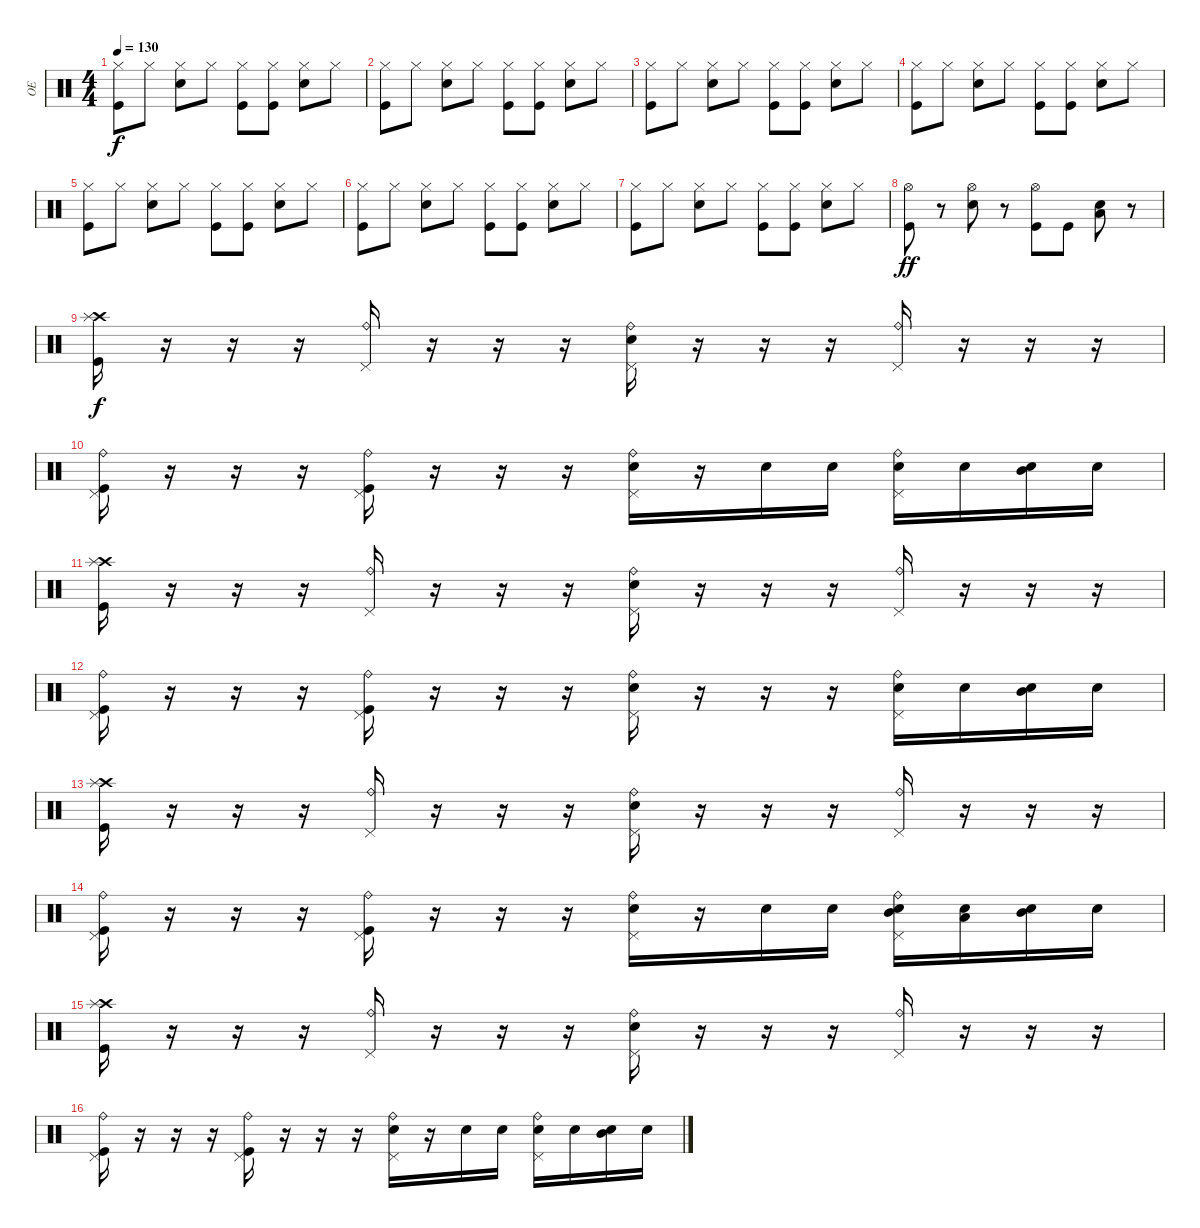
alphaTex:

\track ("OE" "OE") {instrument percussion}
\staff {score}
\articulation defaults
\ts (4 4)
\tempo 130
\clef neutral
\ks c
("Hi-Hat (closed)" "Kick (hit)").8{dy f} "Hi-Hat (closed)".8 ("Hi-Hat (closed)" "Snare (hit) 2").8 "Hi-Hat (closed)".8 ("Hi-Hat (closed)" "Kick (hit)").8 ("Hi-Hat (closed)" "Kick (hit)").8 ("Hi-Hat (closed)" "Snare (hit) 2").8 "Hi-Hat (closed)".8 |
("Hi-Hat (closed)" "Kick (hit)").8 "Hi-Hat (closed)".8 ("Hi-Hat (closed)" "Snare (hit) 2").8 "Hi-Hat (closed)".8 ("Hi-Hat (closed)" "Kick (hit)").8 ("Hi-Hat (closed)" "Kick (hit)").8 ("Hi-Hat (closed)" "Snare (hit) 2").8 "Hi-Hat (closed)".8 |
("Hi-Hat (closed)" "Kick (hit)").8 "Hi-Hat (closed)".8 ("Hi-Hat (closed)" "Snare (hit) 2").8 "Hi-Hat (closed)".8 ("Hi-Hat (closed)" "Kick (hit)").8 ("Hi-Hat (closed)" "Kick (hit)").8 ("Hi-Hat (closed)" "Snare (hit) 2").8 "Hi-Hat (closed)".8 |
("Hi-Hat (closed)" "Kick (hit)").8 "Hi-Hat (closed)".8 ("Hi-Hat (closed)" "Snare (hit) 2").8 "Hi-Hat (closed)".8 ("Hi-Hat (closed)" "Kick (hit)").8 ("Hi-Hat (closed)" "Kick (hit)").8 ("Hi-Hat (closed)" "Snare (hit) 2").8 "Hi-Hat (closed)".8 |
("Hi-Hat (closed)" "Kick (hit)").8 "Hi-Hat (closed)".8 ("Hi-Hat (closed)" "Snare (hit) 2").8 "Hi-Hat (closed)".8 ("Hi-Hat (closed)" "Kick (hit)").8 ("Hi-Hat (closed)" "Kick (hit)").8 ("Hi-Hat (closed)" "Snare (hit) 2").8 "Hi-Hat (closed)".8 |
("Hi-Hat (closed)" "Kick (hit)").8 "Hi-Hat (closed)".8 ("Hi-Hat (closed)" "Snare (hit) 2").8 "Hi-Hat (closed)".8 ("Hi-Hat (closed)" "Kick (hit)").8 ("Hi-Hat (closed)" "Kick (hit)").8 ("Hi-Hat (closed)" "Snare (hit) 2").8 "Hi-Hat (closed)".8 |
("Hi-Hat (closed)" "Kick (hit)").8 "Hi-Hat (closed)".8 ("Hi-Hat (closed)" "Snare (hit) 2").8 "Hi-Hat (closed)".8 ("Hi-Hat (closed)" "Kick (hit)").8 ("Hi-Hat (closed)" "Kick (hit)").8 ("Hi-Hat (closed)" "Snare (hit) 2").8 "Hi-Hat (closed)".8 |
("Kick (hit)" "Hi-Hat (open)").8{dy ff} r.8 ("Snare (hit) 2" "Hi-Hat (open)").8 r.8 ("Kick (hit)" "Hi-Hat (open)").8 "Kick (hit)".8 ("Snare (hit) 2" "Low Tom (hit)").8 r.8 |
("Crash high (hit)" "Kick (hit)" "Splash (hit)").16{dy f} r.16 r.16 r.16 ("Pedal Hi-Hat (hit)" "Ride (bell)").16 r.16 r.16 r.16 ("Pedal Hi-Hat (hit)" "Ride (bell)" "Snare (hit) 2").16 r.16 r.16 r.16 ("Pedal Hi-Hat (hit)" "Ride (bell)").16 r.16 r.16 r.16 |
("Pedal Hi-Hat (hit)" "Ride (bell)" "Kick (hit)").16 r.16 r.16 r.16 ("Pedal Hi-Hat (hit)" "Kick (hit)" "Ride (bell)").16 r.16 r.16 r.16 ("Pedal Hi-Hat (hit)" "Snare (hit) 2" "Ride (bell)").16 r.16 "Snare (hit) 2".16 "Snare (hit) 2".16 ("Pedal Hi-Hat (hit)" "Ride (bell)" "Snare (hit) 2").16 "Snare (hit) 2".16 ("Snare (hit) 2" "Mid Tom (hit)").16 "Snare (hit) 2".16 |
("Crash high (hit)" "Kick (hit)" "Splash (hit)").16 r.16 r.16 r.16 ("Pedal Hi-Hat (hit)" "Ride (bell)").16 r.16 r.16 r.16 ("Pedal Hi-Hat (hit)" "Ride (bell)" "Snare (hit) 2").16 r.16 r.16 r.16 ("Pedal Hi-Hat (hit)" "Ride (bell)").16 r.16 r.16 r.16 |
("Pedal Hi-Hat (hit)" "Ride (bell)" "Kick (hit)").16 r.16 r.16 r.16 ("Pedal Hi-Hat (hit)" "Kick (hit)" "Ride (bell)").16 r.16 r.16 r.16 ("Pedal Hi-Hat (hit)" "Snare (hit) 2" "Ride (bell)").16 r.16 r.16 r.16 ("Pedal Hi-Hat (hit)" "Ride (bell)" "Snare (hit) 2").16 "Snare (hit) 2".16 ("Snare (hit) 2" "Mid Tom (hit)").16 "Snare (hit) 2".16 |
("Crash high (hit)" "Kick (hit)" "Splash (hit)").16 r.16 r.16 r.16 ("Pedal Hi-Hat (hit)" "Ride (bell)").16 r.16 r.16 r.16 ("Pedal Hi-Hat (hit)" "Ride (bell)" "Snare (hit) 2").16 r.16 r.16 r.16 ("Pedal Hi-Hat (hit)" "Ride (bell)").16 r.16 r.16 r.16 |
("Pedal Hi-Hat (hit)" "Ride (bell)" "Kick (hit)").16 r.16 r.16 r.16 ("Pedal Hi-Hat (hit)" "Kick (hit)" "Ride (bell)").16 r.16 r.16 r.16 ("Pedal Hi-Hat (hit)" "Snare (hit) 2" "Ride (bell)").16 r.16 "Snare (hit) 2".16 "Snare (hit) 2".16 ("Pedal Hi-Hat (hit)" "Ride (bell)" "Snare (hit) 2" "Mid Tom (hit)").16 ("Snare (hit) 2" "Low Tom (hit)").16 ("Snare (hit) 2" "Mid Tom (hit)").16 "Snare (hit) 2".16 |
("Crash high (hit)" "Kick (hit)" "Splash (hit)").16 r.16 r.16 r.16 ("Pedal Hi-Hat (hit)" "Ride (bell)").16 r.16 r.16 r.16 ("Pedal Hi-Hat (hit)" "Ride (bell)" "Snare (hit) 2").16 r.16 r.16 r.16 ("Pedal Hi-Hat (hit)" "Ride (bell)").16 r.16 r.16 r.16 |
("Pedal Hi-Hat (hit)" "Ride (bell)" "Kick (hit)").16 r.16 r.16 r.16 ("Pedal Hi-Hat (hit)" "Kick (hit)" "Ride (bell)").16 r.16 r.16 r.16 ("Pedal Hi-Hat (hit)" "Snare (hit) 2" "Ride (bell)").16 r.16 "Snare (hit) 2".16 "Snare (hit) 2".16 ("Pedal Hi-Hat (hit)" "Ride (bell)" "Snare (hit) 2").16 "Snare (hit) 2".16 ("Snare (hit) 2" "Mid Tom (hit)").16 "Snare (hit) 2".16
